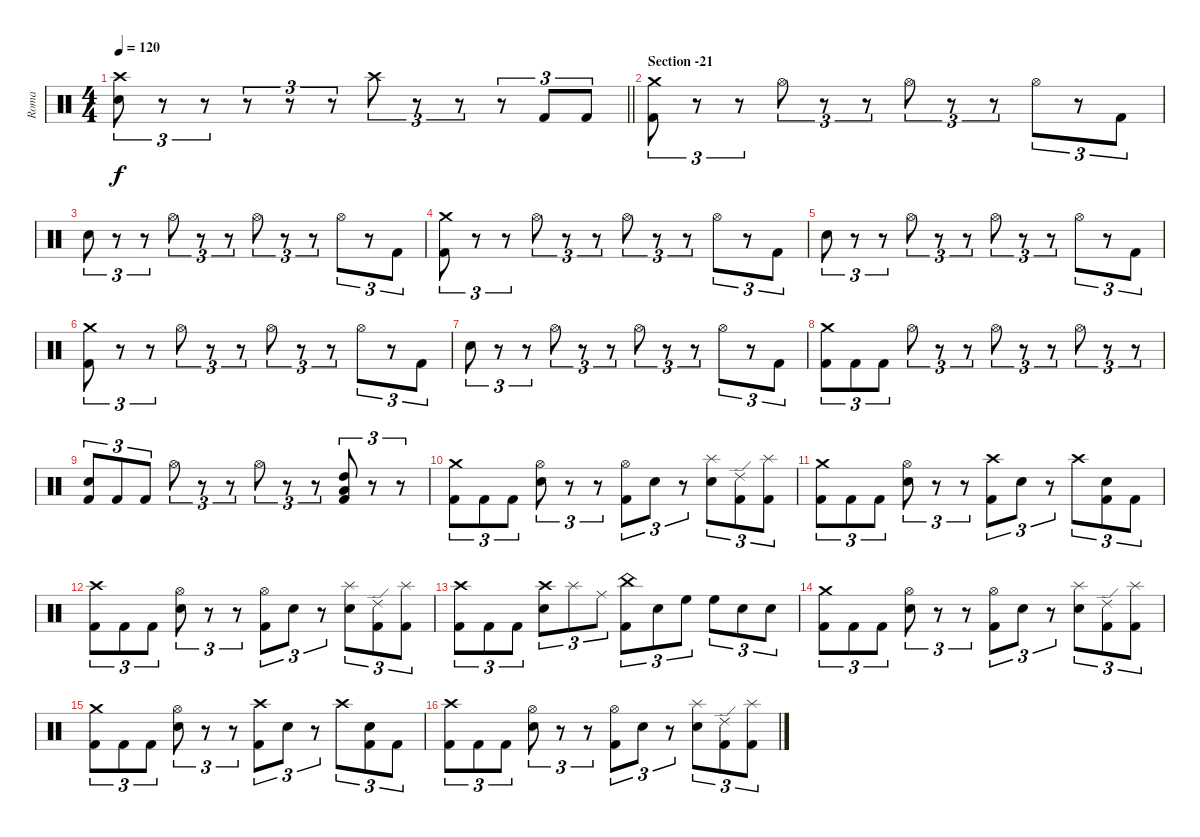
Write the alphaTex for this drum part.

\track ("Roma" "Roma") {instrument percussion}
\staff {score}
\articulation defaults
\ts (4 4)
\tempo 120
\clef neutral
\barLineRight lightlight
\ks c
("Crash high (hit)" "Electric Snare (hit)").8{tu (3 2) dy f} r.8{tu (3 2)} r.8{tu (3 2)} r.8{tu (3 2)} r.8{tu (3 2)} r.8{tu (3 2)} "Crash high (hit)".8{tu (3 2)} r.8{tu (3 2)} r.8{tu (3 2)} r.8{tu (3 2)} "Kick (hit) 2".8{tu (3 2)} "Kick (hit) 2".8{tu (3 2)} |
\section ("" "Section -21")
("Crash medium (hit)" "Kick (hit) 2").8{tu (3 2)} r.8{tu (3 2)} r.8{tu (3 2)} "Hi-Hat (open)".8{tu (3 2)} r.8{tu (3 2)} r.8{tu (3 2)} "Hi-Hat (open)".8{tu (3 2)} r.8{tu (3 2)} r.8{tu (3 2)} "Hi-Hat (open)".8{tu (3 2)} r.8{tu (3 2)} "Kick (hit) 2".8{tu (3 2)} |
"Electric Snare (hit)".8{tu (3 2)} r.8{tu (3 2)} r.8{tu (3 2)} "Hi-Hat (open)".8{tu (3 2)} r.8{tu (3 2)} r.8{tu (3 2)} "Hi-Hat (open)".8{tu (3 2)} r.8{tu (3 2)} r.8{tu (3 2)} "Hi-Hat (open)".8{tu (3 2)} r.8{tu (3 2)} "Kick (hit) 2".8{tu (3 2)} |
("Crash medium (hit)" "Kick (hit) 2").8{tu (3 2)} r.8{tu (3 2)} r.8{tu (3 2)} "Hi-Hat (open)".8{tu (3 2)} r.8{tu (3 2)} r.8{tu (3 2)} "Hi-Hat (open)".8{tu (3 2)} r.8{tu (3 2)} r.8{tu (3 2)} "Hi-Hat (open)".8{tu (3 2)} r.8{tu (3 2)} "Kick (hit) 2".8{tu (3 2)} |
"Electric Snare (hit)".8{tu (3 2)} r.8{tu (3 2)} r.8{tu (3 2)} "Hi-Hat (open)".8{tu (3 2)} r.8{tu (3 2)} r.8{tu (3 2)} "Hi-Hat (open)".8{tu (3 2)} r.8{tu (3 2)} r.8{tu (3 2)} "Hi-Hat (open)".8{tu (3 2)} r.8{tu (3 2)} "Kick (hit) 2".8{tu (3 2)} |
("Crash medium (hit)" "Kick (hit) 2").8{tu (3 2)} r.8{tu (3 2)} r.8{tu (3 2)} "Hi-Hat (open)".8{tu (3 2)} r.8{tu (3 2)} r.8{tu (3 2)} "Hi-Hat (open)".8{tu (3 2)} r.8{tu (3 2)} r.8{tu (3 2)} "Hi-Hat (open)".8{tu (3 2)} r.8{tu (3 2)} "Kick (hit) 2".8{tu (3 2)} |
"Electric Snare (hit)".8{tu (3 2)} r.8{tu (3 2)} r.8{tu (3 2)} "Hi-Hat (open)".8{tu (3 2)} r.8{tu (3 2)} r.8{tu (3 2)} "Hi-Hat (open)".8{tu (3 2)} r.8{tu (3 2)} r.8{tu (3 2)} "Hi-Hat (open)".8{tu (3 2)} r.8{tu (3 2)} "Kick (hit) 2".8{tu (3 2)} |
("Crash medium (hit)" "Kick (hit) 2").8{tu (3 2)} "Kick (hit) 2".8{tu (3 2)} "Kick (hit) 2".8{tu (3 2)} "Hi-Hat (open)".8{tu (3 2)} r.8{tu (3 2)} r.8{tu (3 2)} "Hi-Hat (open)".8{tu (3 2)} r.8{tu (3 2)} r.8{tu (3 2)} "Hi-Hat (open)".8{tu (3 2)} r.8{tu (3 2)} r.8{tu (3 2)} |
("Kick (hit) 2" "Electric Snare (hit)").8{tu (3 2)} "Kick (hit) 2".8{tu (3 2)} "Kick (hit) 2".8{tu (3 2)} "Hi-Hat (open)".8{tu (3 2)} r.8{tu (3 2)} r.8{tu (3 2)} "Hi-Hat (open)".8{tu (3 2)} r.8{tu (3 2)} r.8{tu (3 2)} ("High Tom (hit)" "Low Tom (hit)" "Kick (hit) 2").8{tu (3 2)} r.8{tu (3 2)} r.8{tu (3 2)} |
("Crash medium (hit)" "Kick (hit) 2").8{tu (3 2)} "Kick (hit) 2".8{tu (3 2)} "Kick (hit) 2".8{tu (3 2)} ("Hi-Hat (open)" "Electric Snare (hit)").8{tu (3 2)} r.8{tu (3 2)} r.8{tu (3 2)} ("Hi-Hat (open)" "Kick (hit) 2").8{tu (3 2)} "Electric Snare (hit)".8{tu (3 2)} r.8{tu (3 2)} ("Splash (hit)" "Electric Snare (hit)").8{tu (3 2)} ("Ride (edge) 2" "Kick (hit) 2").8{tu (3 2)} ("Splash (hit)" "Kick (hit) 2").8{tu (3 2)} |
("Crash medium (hit)" "Kick (hit) 2").8{tu (3 2)} "Kick (hit) 2".8{tu (3 2)} "Kick (hit) 2".8{tu (3 2)} ("Hi-Hat (open)" "Electric Snare (hit)").8{tu (3 2)} r.8{tu (3 2)} r.8{tu (3 2)} ("Crash high (hit)" "Kick (hit) 2").8{tu (3 2)} "Electric Snare (hit)".8{tu (3 2)} r.8{tu (3 2)} "Crash high (hit)".8{tu (3 2)} ("Electric Snare (hit)" "Kick (hit) 2").8{tu (3 2)} "Kick (hit) 2".8{tu (3 2)} |
("Crash high (hit)" "Kick (hit) 2").8{tu (3 2)} "Kick (hit) 2".8{tu (3 2)} "Kick (hit) 2".8{tu (3 2)} ("Hi-Hat (open)" "Electric Snare (hit)").8{tu (3 2)} r.8{tu (3 2)} r.8{tu (3 2)} ("Hi-Hat (open)" "Kick (hit) 2").8{tu (3 2)} "Electric Snare (hit)".8{tu (3 2)} r.8{tu (3 2)} ("Splash (hit)" "Electric Snare (hit)").8{tu (3 2)} ("Ride (edge) 2" "Kick (hit) 2").8{tu (3 2)} ("Splash (hit)" "Kick (hit) 2").8{tu (3 2)} |
("Crash high (hit)" "Kick (hit) 2").8{tu (3 2)} "Kick (hit) 2".8{tu (3 2)} "Kick (hit) 2".8{tu (3 2)} ("Crash high (hit)" "Electric Snare (hit)").8{tu (3 2)} "Splash (hit)".8{tu (3 2)} "Ride (middle)".8{tu (3 2)} ("China (hit)" "Kick (hit) 2").8{tu (3 2)} "Electric Snare (hit)".8{tu (3 2)} "High Floor Tom (hit)".8{tu (3 2)} "High Floor Tom (hit)".8{tu (3 2)} "Electric Snare (hit)".8{tu (3 2)} "Electric Snare (hit)".8{tu (3 2)} |
("Crash medium (hit)" "Kick (hit) 2").8{tu (3 2)} "Kick (hit) 2".8{tu (3 2)} "Kick (hit) 2".8{tu (3 2)} ("Hi-Hat (open)" "Electric Snare (hit)").8{tu (3 2)} r.8{tu (3 2)} r.8{tu (3 2)} ("Hi-Hat (open)" "Kick (hit) 2").8{tu (3 2)} "Electric Snare (hit)".8{tu (3 2)} r.8{tu (3 2)} ("Splash (hit)" "Electric Snare (hit)").8{tu (3 2)} ("Ride (edge) 2" "Kick (hit) 2").8{tu (3 2)} ("Splash (hit)" "Kick (hit) 2").8{tu (3 2)} |
("Crash medium (hit)" "Kick (hit) 2").8{tu (3 2)} "Kick (hit) 2".8{tu (3 2)} "Kick (hit) 2".8{tu (3 2)} ("Hi-Hat (open)" "Electric Snare (hit)").8{tu (3 2)} r.8{tu (3 2)} r.8{tu (3 2)} ("Crash high (hit)" "Kick (hit) 2").8{tu (3 2)} "Electric Snare (hit)".8{tu (3 2)} r.8{tu (3 2)} "Crash high (hit)".8{tu (3 2)} ("Electric Snare (hit)" "Kick (hit) 2").8{tu (3 2)} "Kick (hit) 2".8{tu (3 2)} |
("Crash high (hit)" "Kick (hit) 2").8{tu (3 2)} "Kick (hit) 2".8{tu (3 2)} "Kick (hit) 2".8{tu (3 2)} ("Hi-Hat (open)" "Electric Snare (hit)").8{tu (3 2)} r.8{tu (3 2)} r.8{tu (3 2)} ("Hi-Hat (open)" "Kick (hit) 2").8{tu (3 2)} "Electric Snare (hit)".8{tu (3 2)} r.8{tu (3 2)} ("Splash (hit)" "Electric Snare (hit)").8{tu (3 2)} ("Ride (edge) 2" "Kick (hit) 2").8{tu (3 2)} ("Splash (hit)" "Kick (hit) 2").8{tu (3 2)}
